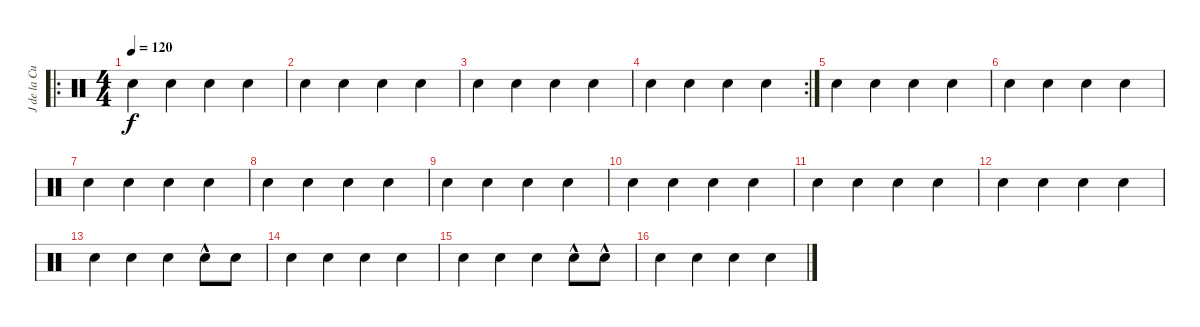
\track ("J de la Cueva" "J de la Cu") {instrument percussion}
\staff {score}
\articulation defaults
\ro
\ts (4 4)
\tempo 120
\clef neutral
\ks c "Snare (hit) 2".4{dy f} "Snare (hit) 2".4 "Snare (hit) 2".4 "Snare (hit) 2".4
|
"Snare (hit) 2".4 "Snare (hit) 2".4 "Snare (hit) 2".4 "Snare (hit) 2".4 |
"Snare (hit) 2".4 "Snare (hit) 2".4 "Snare (hit) 2".4 "Snare (hit) 2".4 |
\rc 2 "Snare (hit) 2".4 "Snare (hit) 2".4 "Snare (hit) 2".4 "Snare (hit) 2".4
|
"Snare (hit) 2".4 "Snare (hit) 2".4 "Snare (hit) 2".4 "Snare (hit) 2".4 |
"Snare (hit) 2".4 "Snare (hit) 2".4 "Snare (hit) 2".4 "Snare (hit) 2".4 |
"Snare (hit) 2".4 "Snare (hit) 2".4 "Snare (hit) 2".4 "Snare (hit) 2".4 |
"Snare (hit) 2".4 "Snare (hit) 2".4 "Snare (hit) 2".4 "Snare (hit) 2".4 |
"Snare (hit) 2".4 "Snare (hit) 2".4 "Snare (hit) 2".4 "Snare (hit) 2".4 |
"Snare (hit) 2".4 "Snare (hit) 2".4 "Snare (hit) 2".4 "Snare (hit) 2".4 |
"Snare (hit) 2".4 "Snare (hit) 2".4 "Snare (hit) 2".4 "Snare (hit) 2".4 |
"Snare (hit) 2".4 "Snare (hit) 2".4 "Snare (hit) 2".4 "Snare (hit) 2".4 |
"Snare (hit) 2".4 "Snare (hit) 2".4 "Snare (hit) 2".4 "Snare (hit) 2"{hac}.8 "Electric Snare (hit)".8 |
"Snare (hit) 2".4 "Snare (hit) 2".4 "Snare (hit) 2".4 "Snare (hit) 2".4 |
"Snare (hit) 2".4 "Snare (hit) 2".4 "Snare (hit) 2".4 "Snare (hit) 2"{hac}.8 "Electric Snare (hit)"{hac}.8 |
"Snare (hit) 2".4 "Snare (hit) 2".4 "Snare (hit) 2".4 "Snare (hit) 2".4
